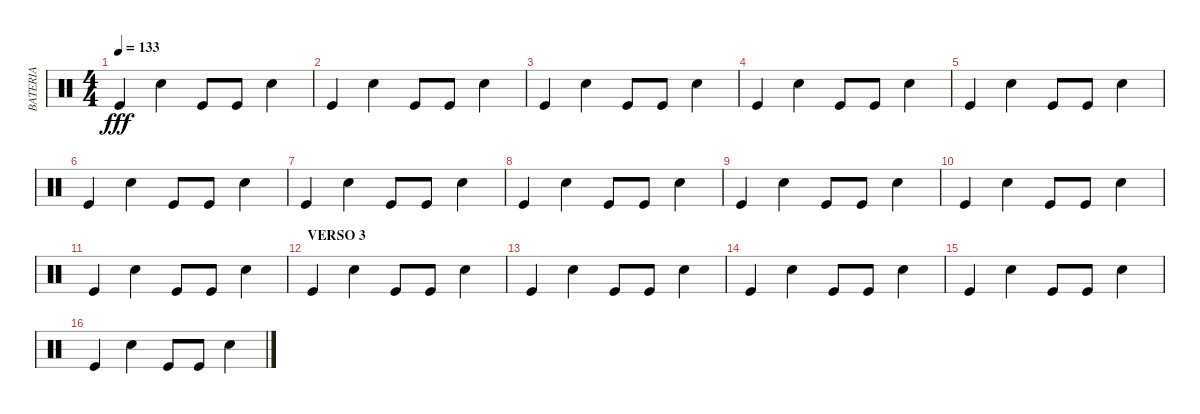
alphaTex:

\track ("BATERIA" "BATERIA") {instrument percussion}
\staff {score}
\articulation defaults
\ts (4 4)
\tempo 133
\clef neutral
\ks c "Kick (hit)".4{dy fff} "Electric Snare (hit)".4 "Kick (hit)".8 "Kick (hit)".8 "Electric Snare (hit)".4
|
"Kick (hit)".4 "Electric Snare (hit)".4 "Kick (hit)".8 "Kick (hit)".8 "Electric Snare (hit)".4 |
"Kick (hit)".4 "Electric Snare (hit)".4 "Kick (hit)".8 "Kick (hit)".8 "Electric Snare (hit)".4 |
"Kick (hit)".4 "Electric Snare (hit)".4 "Kick (hit)".8 "Kick (hit)".8 "Electric Snare (hit)".4 |
"Kick (hit)".4 "Electric Snare (hit)".4 "Kick (hit)".8 "Kick (hit)".8 "Electric Snare (hit)".4 |
"Kick (hit)".4 "Electric Snare (hit)".4 "Kick (hit)".8 "Kick (hit)".8 "Electric Snare (hit)".4 |
"Kick (hit)".4 "Electric Snare (hit)".4 "Kick (hit)".8 "Kick (hit)".8 "Electric Snare (hit)".4 |
"Kick (hit)".4 "Electric Snare (hit)".4 "Kick (hit)".8 "Kick (hit)".8 "Electric Snare (hit)".4 |
"Kick (hit)".4 "Electric Snare (hit)".4 "Kick (hit)".8 "Kick (hit)".8 "Electric Snare (hit)".4 |
"Kick (hit)".4 "Electric Snare (hit)".4 "Kick (hit)".8 "Kick (hit)".8 "Electric Snare (hit)".4 |
"Kick (hit)".4 "Electric Snare (hit)".4 "Kick (hit)".8 "Kick (hit)".8 "Electric Snare (hit)".4 |
\section ("" "VERSO 3")
"Kick (hit)".4 "Electric Snare (hit)".4 "Kick (hit)".8 "Kick (hit)".8 "Electric Snare (hit)".4 |
"Kick (hit)".4 "Electric Snare (hit)".4 "Kick (hit)".8 "Kick (hit)".8 "Electric Snare (hit)".4 |
"Kick (hit)".4 "Electric Snare (hit)".4 "Kick (hit)".8 "Kick (hit)".8 "Electric Snare (hit)".4 |
"Kick (hit)".4 "Electric Snare (hit)".4 "Kick (hit)".8 "Kick (hit)".8 "Electric Snare (hit)".4 |
"Kick (hit)".4 "Electric Snare (hit)".4 "Kick (hit)".8 "Kick (hit)".8 "Electric Snare (hit)".4
